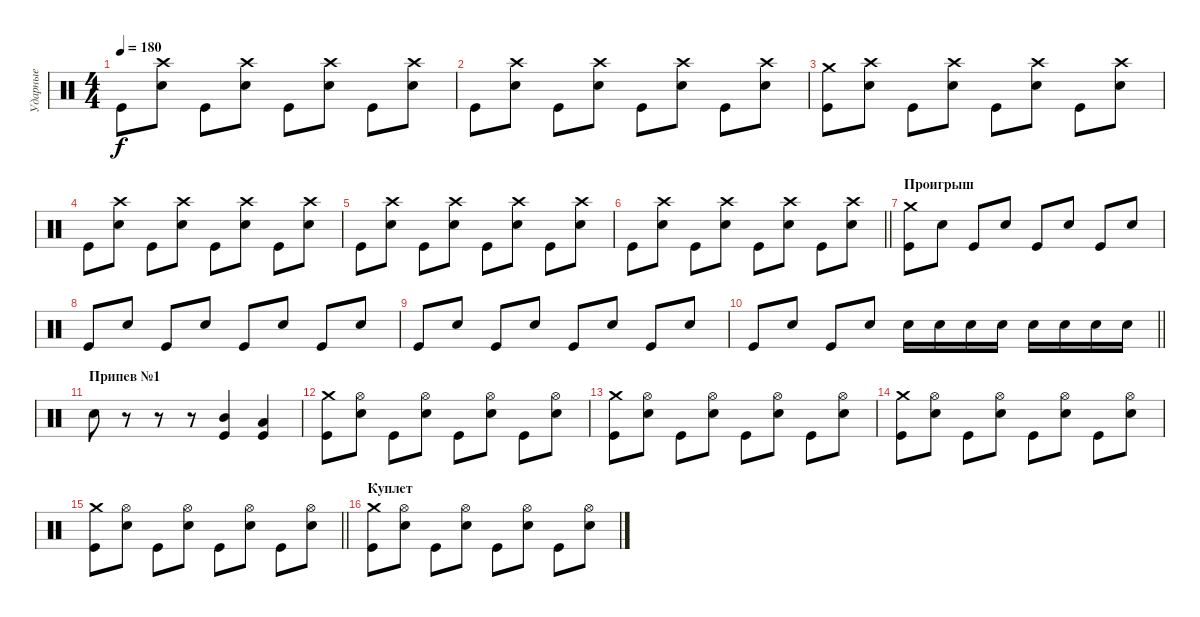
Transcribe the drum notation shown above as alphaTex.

\track ("Ударные" "Ударные") {instrument percussion}
\staff {score}
\articulation defaults
\ts (4 4)
\tempo 180
\clef neutral
\ks c "Kick (hit)".8{dy f}
("Crash high (hit)" "Electric Snare (hit)").8 "Kick (hit)".8 ("Crash high (hit)" "Electric Snare (hit)").8 "Kick (hit)".8 ("Crash high (hit)" "Electric Snare (hit)").8 "Kick (hit)".8 ("Crash high (hit)" "Electric Snare (hit)").8 |
"Kick (hit)".8 ("Crash high (hit)" "Electric Snare (hit)").8 "Kick (hit)".8 ("Crash high (hit)" "Electric Snare (hit)").8 "Kick (hit)".8 ("Crash high (hit)" "Electric Snare (hit)").8 "Kick (hit)".8 ("Crash high (hit)" "Electric Snare (hit)").8 |
("Crash medium (hit)" "Kick (hit)").8 ("Crash high (hit)" "Electric Snare (hit)").8 "Kick (hit)".8 ("Crash high (hit)" "Electric Snare (hit)").8 "Kick (hit)".8 ("Crash high (hit)" "Electric Snare (hit)").8 "Kick (hit)".8 ("Crash high (hit)" "Electric Snare (hit)").8 |
"Kick (hit)".8 ("Crash high (hit)" "Electric Snare (hit)").8 "Kick (hit)".8 ("Crash high (hit)" "Electric Snare (hit)").8 "Kick (hit)".8 ("Crash high (hit)" "Electric Snare (hit)").8 "Kick (hit)".8 ("Crash high (hit)" "Electric Snare (hit)").8 |
"Kick (hit)".8 ("Crash high (hit)" "Electric Snare (hit)").8 "Kick (hit)".8 ("Crash high (hit)" "Electric Snare (hit)").8 "Kick (hit)".8 ("Crash high (hit)" "Electric Snare (hit)").8 "Kick (hit)".8 ("Crash high (hit)" "Electric Snare (hit)").8 |
\barLineRight lightlight "Kick (hit)".8
("Crash high (hit)" "Electric Snare (hit)").8 "Kick (hit)".8 ("Crash high (hit)" "Electric Snare (hit)").8 "Kick (hit)".8 ("Crash high (hit)" "Electric Snare (hit)").8 "Kick (hit)".8 ("Crash high (hit)" "Electric Snare (hit)").8 |
\section ("" "Проигрыш")
("Crash medium (hit)" "Kick (hit)").8 "Electric Snare (hit)".8 "Kick (hit)".8 "Electric Snare (hit)".8 "Kick (hit)".8 "Electric Snare (hit)".8 "Kick (hit)".8 "Electric Snare (hit)".8 |
"Kick (hit)".8 "Electric Snare (hit)".8 "Kick (hit)".8 "Electric Snare (hit)".8 "Kick (hit)".8 "Electric Snare (hit)".8 "Kick (hit)".8 "Electric Snare (hit)".8 |
"Kick (hit)".8 "Electric Snare (hit)".8 "Kick (hit)".8 "Electric Snare (hit)".8 "Kick (hit)".8 "Electric Snare (hit)".8 "Kick (hit)".8 "Electric Snare (hit)".8 |
\barLineRight lightlight "Kick (hit)".8 "Electric Snare (hit)".8 "Kick (hit)".8 "Electric Snare (hit)".8 "Electric Snare (hit)".16 "Electric Snare (hit)".16 "Electric Snare (hit)".16 "Electric Snare (hit)".16 "Electric Snare (hit)".16 "Electric Snare (hit)".16 "Electric Snare (hit)".16 "Electric Snare (hit)".16
|
\section ("" "Припев №1")
"Electric Snare (hit)".8 r.8 r.8 r.8 ("Mid Tom (hit)" "Kick (hit)").4 ("Low Tom (hit)" "Kick (hit)").4 |
("Crash medium (hit)" "Kick (hit)").8 ("Hi-Hat (open)" "Electric Snare (hit)").8 "Kick (hit)".8 ("Hi-Hat (open)" "Electric Snare (hit)").8 "Kick (hit)".8 ("Hi-Hat (open)" "Electric Snare (hit)").8 "Kick (hit)".8 ("Hi-Hat (open)" "Electric Snare (hit)").8 |
("Crash medium (hit)" "Kick (hit)").8 ("Hi-Hat (open)" "Electric Snare (hit)").8 "Kick (hit)".8 ("Hi-Hat (open)" "Electric Snare (hit)").8 "Kick (hit)".8 ("Hi-Hat (open)" "Electric Snare (hit)").8 "Kick (hit)".8 ("Hi-Hat (open)" "Electric Snare (hit)").8 |
("Crash medium (hit)" "Kick (hit)").8 ("Hi-Hat (open)" "Electric Snare (hit)").8 "Kick (hit)".8 ("Hi-Hat (open)" "Electric Snare (hit)").8 "Kick (hit)".8 ("Hi-Hat (open)" "Electric Snare (hit)").8 "Kick (hit)".8 ("Hi-Hat (open)" "Electric Snare (hit)").8 |
\barLineRight lightlight
("Crash medium (hit)" "Kick (hit)").8 ("Hi-Hat (open)" "Electric Snare (hit)").8 "Kick (hit)".8 ("Hi-Hat (open)" "Electric Snare (hit)").8 "Kick (hit)".8 ("Hi-Hat (open)" "Electric Snare (hit)").8 "Kick (hit)".8 ("Hi-Hat (open)" "Electric Snare (hit)").8 |
\section ("" "Куплет")
("Crash medium (hit)" "Kick (hit)").8 ("Hi-Hat (open)" "Electric Snare (hit)").8 "Kick (hit)".8 ("Hi-Hat (open)" "Electric Snare (hit)").8 "Kick (hit)".8 ("Hi-Hat (open)" "Electric Snare (hit)").8 "Kick (hit)".8 ("Hi-Hat (open)" "Electric Snare (hit)").8
